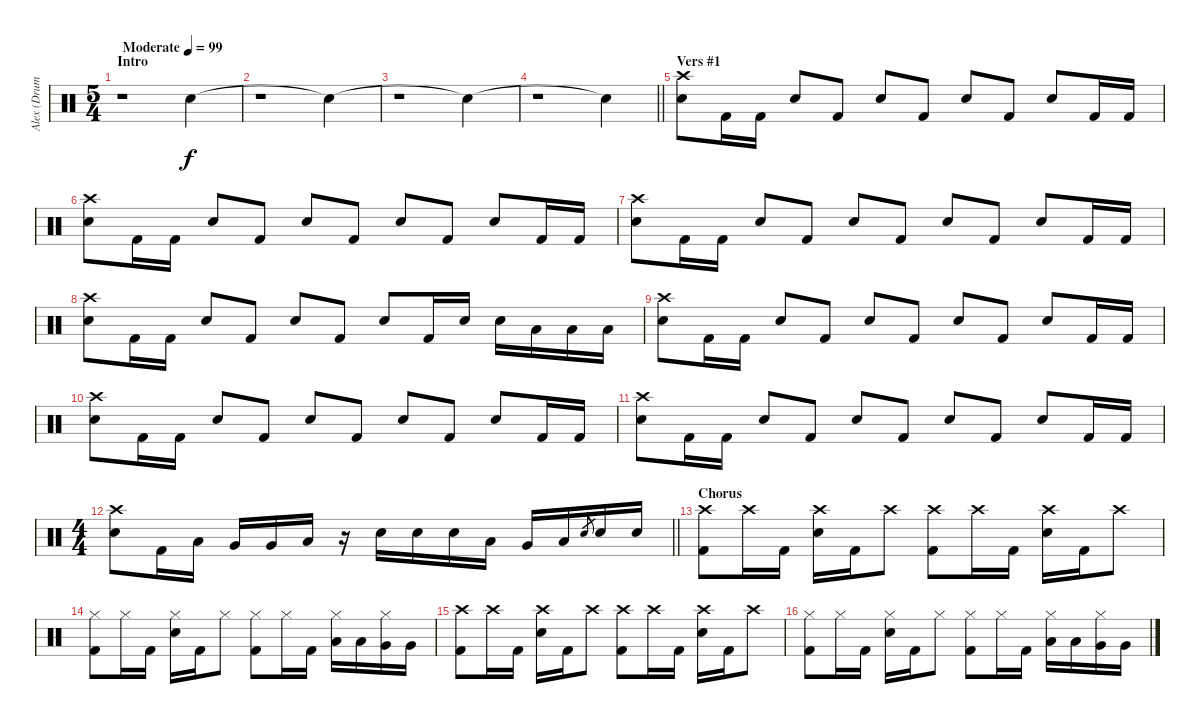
\track ("Alex (Drums)" "Alex (Drum") {instrument percussion}
\staff {score}
\articulation defaults
\ts (5 4)
\section ("" "Intro")
\tempo (99 "Moderate")
\clef neutral
\ks c
r.1{dy f} "Snare (hit)".4 |
r.1 "Snare (hit)"{t}.4 |
r.1 "Snare (hit)"{t}.4 |
\barLineRight lightlight
r.1 "Snare (hit)"{t}.4 |
\section ("" "Vers #1")
("Crash high (hit)" "Snare (hit) 2").8 "Kick (hit) 2".16 "Kick (hit) 2".16 "Snare (hit) 2".8 "Kick (hit) 2".8 "Snare (hit) 2".8 "Kick (hit) 2".8 "Snare (hit) 2".8 "Kick (hit) 2".8 "Snare (hit) 2".8 "Kick (hit) 2".16 "Kick (hit) 2".16 |
("Crash high (hit)" "Snare (hit) 2").8 "Kick (hit) 2".16 "Kick (hit) 2".16 "Snare (hit) 2".8 "Kick (hit) 2".8 "Snare (hit) 2".8 "Kick (hit) 2".8 "Snare (hit) 2".8 "Kick (hit) 2".8 "Snare (hit) 2".8 "Kick (hit) 2".16 "Kick (hit) 2".16 |
("Crash high (hit)" "Snare (hit) 2").8 "Kick (hit) 2".16 "Kick (hit) 2".16 "Snare (hit) 2".8 "Kick (hit) 2".8 "Snare (hit) 2".8 "Kick (hit) 2".8 "Snare (hit) 2".8 "Kick (hit) 2".8 "Snare (hit) 2".8 "Kick (hit) 2".16 "Kick (hit) 2".16 |
("Crash high (hit)" "Snare (hit) 2").8 "Kick (hit) 2".16 "Kick (hit) 2".16 "Snare (hit) 2".8 "Kick (hit) 2".8 "Snare (hit) 2".8 "Kick (hit) 2".8 "Snare (hit) 2".8 "Kick (hit) 2".16 "Snare (hit) 2".16 "Snare (hit) 2".16 "Low Tom (hit)".16 "Low Tom (hit)".16 "Low Floor Tom (hit)".16 |
("Crash high (hit)" "Snare (hit) 2").8 "Kick (hit) 2".16 "Kick (hit) 2".16 "Snare (hit) 2".8 "Kick (hit) 2".8 "Snare (hit) 2".8 "Kick (hit) 2".8 "Snare (hit) 2".8 "Kick (hit) 2".8 "Snare (hit) 2".8 "Kick (hit) 2".16 "Kick (hit) 2".16 |
("Crash high (hit)" "Snare (hit) 2").8 "Kick (hit) 2".16 "Kick (hit) 2".16 "Snare (hit) 2".8 "Kick (hit) 2".8 "Snare (hit) 2".8 "Kick (hit) 2".8 "Snare (hit) 2".8 "Kick (hit) 2".8 "Snare (hit) 2".8 "Kick (hit) 2".16 "Kick (hit) 2".16 |
("Crash high (hit)" "Snare (hit) 2").8 "Kick (hit) 2".16 "Kick (hit) 2".16 "Snare (hit) 2".8 "Kick (hit) 2".8 "Snare (hit) 2".8 "Kick (hit) 2".8 "Snare (hit) 2".8 "Kick (hit) 2".8 "Snare (hit) 2".8 "Kick (hit) 2".16 "Kick (hit) 2".16 |
\ts (4 4)
\barLineRight lightlight
("Crash high (hit)" "Snare (hit) 2").8 "Kick (hit) 2".16 "Low Tom (hit)".16 "Very Low Tom (hit)".16 "Very Low Tom (hit)".16 "Low Tom (hit)".16 r.16 "Snare (hit) 2".16 "Snare (hit) 2".16 "Snare (hit) 2".16 "Low Tom (hit)".16 "Very Low Tom (hit)".16 "Low Tom (hit)".16 "Snare (hit) 2".8{gr} "Snare (hit) 2".16 "Snare (hit) 2".16 |
\section ("" "Chorus")
("Crash high (hit)" "Kick (hit) 2").8 "Crash high (hit)".16 "Kick (hit) 2".16 ("Crash high (hit)" "Snare (hit) 2").16 "Kick (hit) 2".16 "Crash high (hit)".8 ("Crash high (hit)" "Kick (hit) 2").8 "Crash high (hit)".16 "Kick (hit) 2".16 ("Crash high (hit)" "Snare (hit) 2").16 "Kick (hit) 2".16 "Crash high (hit)".8 |
("Hi-Hat (closed)" "Kick (hit) 2").8 "Hi-Hat (closed)".16 "Kick (hit) 2".16 ("Hi-Hat (closed)" "Snare (hit) 2").16 "Kick (hit) 2".16 "Hi-Hat (closed)".8 ("Hi-Hat (closed)" "Kick (hit) 2").8 "Hi-Hat (closed)".16 "Kick (hit) 2".16 ("Hi-Hat (closed)" "Low Tom (hit)").16 "Low Tom (hit)".16 ("Hi-Hat (closed)" "Very Low Tom (hit)").16 "Very Low Tom (hit)".16 |
("Crash high (hit)" "Kick (hit) 2").8 "Crash high (hit)".16 "Kick (hit) 2".16 ("Crash high (hit)" "Snare (hit) 2").16 "Kick (hit) 2".16 "Crash high (hit)".8 ("Crash high (hit)" "Kick (hit) 2").8 "Crash high (hit)".16 "Kick (hit) 2".16 ("Crash high (hit)" "Snare (hit) 2").16 "Kick (hit) 2".16 "Crash high (hit)".8 |
("Hi-Hat (closed)" "Kick (hit) 2").8 "Hi-Hat (closed)".16 "Kick (hit) 2".16 ("Hi-Hat (closed)" "Snare (hit) 2").16 "Kick (hit) 2".16 "Hi-Hat (closed)".8 ("Hi-Hat (closed)" "Kick (hit) 2").8 "Hi-Hat (closed)".16 "Kick (hit) 2".16 ("Hi-Hat (closed)" "Low Tom (hit)").16 "Low Tom (hit)".16 ("Hi-Hat (closed)" "Very Low Tom (hit)").16 "Very Low Tom (hit)".16
